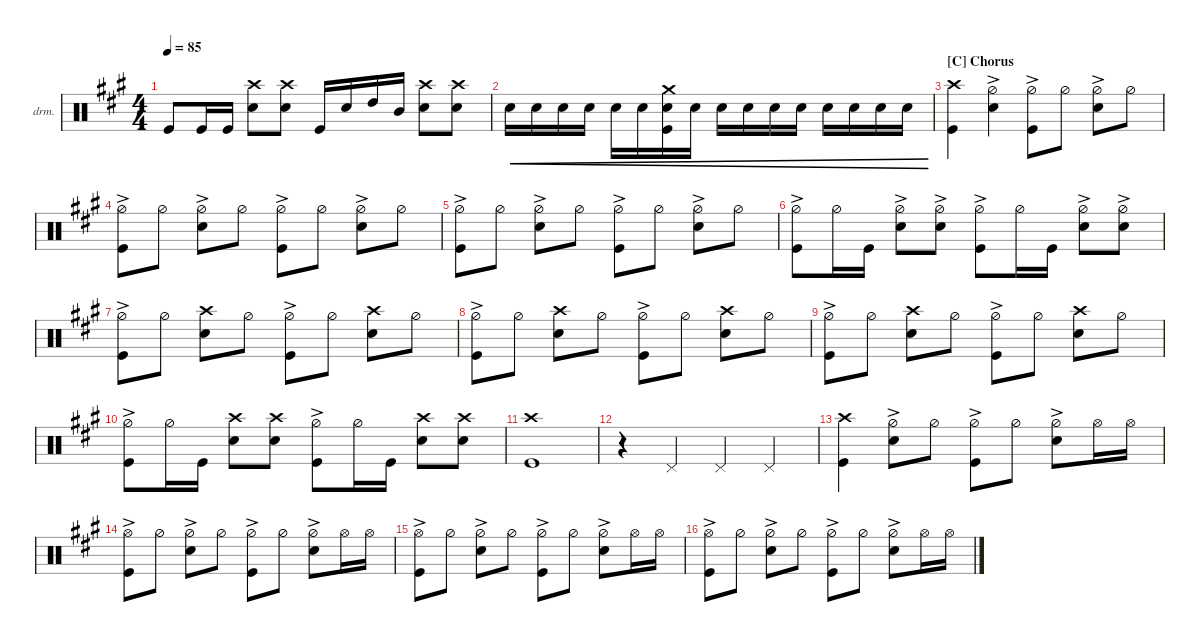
\defaultSystemsLayout 4
\hideDynamics
\bracketExtendMode nobrackets
\firstSystemTrackNameOrientation horizontal
\otherSystemsTrackNameOrientation horizontal
\track ("Drums" "drm.") {instrument percussion}
\staff {score}
\articulation defaults
\ts (4 4)
\tempo 85
\clef neutral
\ks a "Kick (hit)"{acc forcenatural}.8{dy mf beam Up} "Kick (hit)"{acc forcenatural}.16{beam Up} "Kick (hit)"{acc forcenatural}.16{beam Up}
("Snare (hit) 2"{acc forcenatural} "Crash high (hit)"{acc forcenatural}).8{beam Down} ("Snare (hit) 2"{acc forcenatural} "Crash high (hit)"{acc forcenatural}).8{beam Down} "Kick (hit)"{acc forcenatural}.16{beam Up} "Snare (hit) 2"{acc forcenatural}.16{beam Up} "High Tom (hit)"{acc forcenatural}.16{beam Up} "Mid Tom (hit)"{acc forcenatural}.16{beam Up} ("Snare (hit) 2"{acc forcenatural} "Crash high (hit)"{acc forcenatural}).8{beam Down} ("Snare (hit) 2"{acc forcenatural} "Crash high (hit)"{acc forcenatural}).8{beam Down} |
"Snare (hit) 2"{acc forcenatural}.16{cre beam Down} "Snare (hit) 2"{acc forcenatural}.16{cre beam Down} "Snare (hit) 2"{acc forcenatural}.16{cre beam Down} "Snare (hit) 2"{acc forcenatural}.16{cre beam Down} "Snare (hit) 2"{acc forcenatural}.16{cre beam Down} "Snare (hit) 2"{acc forcenatural}.16{cre beam Down} ("Snare (hit) 2"{acc forcenatural} "Kick (hit)"{acc forcenatural} "Crash medium (hit)"{acc forcenatural}).16{cre beam Down} "Snare (hit) 2"{acc forcenatural}.16{cre beam Down} "Snare (hit) 2"{acc forcenatural}.16{cre beam Down} "Snare (hit) 2"{acc forcenatural}.16{cre beam Down} "Snare (hit) 2"{acc forcenatural}.16{cre beam Down} "Snare (hit) 2"{acc forcenatural}.16{cre beam Down} "Snare (hit) 2"{acc forcenatural}.16{cre beam Down} "Snare (hit) 2"{acc forcenatural}.16{cre beam Down} "Snare (hit) 2"{acc forcenatural}.16{cre beam Down} "Snare (hit) 2"{acc forcenatural}.16{cre beam Down} |
\section ("C" "Chorus")
("Kick (hit)"{acc forcenatural} "Crash high (hit)"{acc forcenatural}).4{beam Down} ("Snare (hit) 2"{acc forcenatural} "Hi-Hat (half)"{ac acc forcenatural}).4{beam Down} ("Hi-Hat (half)"{ac acc forcenatural} "Kick (hit)"{acc forcenatural}).8{beam Down} "Hi-Hat (half)"{acc forcenatural}.8{beam Down} ("Snare (hit) 2"{acc forcenatural} "Hi-Hat (half)"{ac acc forcenatural}).8{beam Down} "Hi-Hat (half)"{acc forcenatural}.8{beam Down} |
("Kick (hit)"{acc forcenatural} "Hi-Hat (half)"{ac acc forcenatural}).8{beam Down} "Hi-Hat (half)"{acc forcenatural}.8{beam Down} ("Snare (hit) 2"{acc forcenatural} "Hi-Hat (half)"{ac acc forcenatural}).8{beam Down} "Hi-Hat (half)"{acc forcenatural}.8{beam Down} ("Hi-Hat (half)"{ac acc forcenatural} "Kick (hit)"{acc forcenatural}).8{beam Down} "Hi-Hat (half)"{acc forcenatural}.8{beam Down} ("Snare (hit) 2"{acc forcenatural} "Hi-Hat (half)"{ac acc forcenatural}).8{beam Down} "Hi-Hat (half)"{acc forcenatural}.8{beam Down} |
("Kick (hit)"{acc forcenatural} "Hi-Hat (half)"{ac acc forcenatural}).8{beam Down} "Hi-Hat (half)"{acc forcenatural}.8{beam Down} ("Snare (hit) 2"{acc forcenatural} "Hi-Hat (half)"{ac acc forcenatural}).8{beam Down} "Hi-Hat (half)"{acc forcenatural}.8{beam Down} ("Hi-Hat (half)"{ac acc forcenatural} "Kick (hit)"{acc forcenatural}).8{beam Down} "Hi-Hat (half)"{acc forcenatural}.8{beam Down} ("Snare (hit) 2"{acc forcenatural} "Hi-Hat (half)"{ac acc forcenatural}).8{beam Down} "Hi-Hat (half)"{acc forcenatural}.8{beam Down} |
("Kick (hit)"{acc forcenatural} "Hi-Hat (half)"{ac acc forcenatural}).8{beam Down} "Hi-Hat (half)"{acc forcenatural}.16{beam Down} "Kick (hit)"{acc forcenatural}.16{beam Down} ("Hi-Hat (half)"{ac acc forcenatural} "Snare (hit) 2"{acc forcenatural}).8{beam Down} ("Hi-Hat (half)"{ac acc forcenatural} "Snare (hit) 2"{acc forcenatural}).8{beam Down} ("Kick (hit)"{acc forcenatural} "Hi-Hat (half)"{ac acc forcenatural}).8{beam Down} "Hi-Hat (half)"{acc forcenatural}.16{beam Down} "Kick (hit)"{acc forcenatural}.16{beam Down} ("Hi-Hat (half)"{ac acc forcenatural} "Snare (hit) 2"{acc forcenatural}).8{beam Down} ("Hi-Hat (half)"{ac acc forcenatural} "Snare (hit) 2"{acc forcenatural}).8{beam Down} |
("Kick (hit)"{acc forcenatural} "Hi-Hat (half)"{ac acc forcenatural}).8{beam Down} "Hi-Hat (half)"{acc forcenatural}.8{beam Down} ("Snare (hit) 2"{acc forcenatural} "Crash high (hit)"{acc forcenatural}).8{beam Down} "Hi-Hat (half)"{acc forcenatural}.8{beam Down} ("Hi-Hat (half)"{ac acc forcenatural} "Kick (hit)"{acc forcenatural}).8{beam Down} "Hi-Hat (half)"{acc forcenatural}.8{beam Down} ("Snare (hit) 2"{acc forcenatural} "Crash high (hit)"{acc forcenatural}).8{beam Down} "Hi-Hat (half)"{acc forcenatural}.8{beam Down} |
("Kick (hit)"{acc forcenatural} "Hi-Hat (half)"{ac acc forcenatural}).8{beam Down} "Hi-Hat (half)"{acc forcenatural}.8{beam Down} ("Snare (hit) 2"{acc forcenatural} "Crash high (hit)"{acc forcenatural}).8{beam Down} "Hi-Hat (half)"{acc forcenatural}.8{beam Down} ("Hi-Hat (half)"{ac acc forcenatural} "Kick (hit)"{acc forcenatural}).8{beam Down} "Hi-Hat (half)"{acc forcenatural}.8{beam Down} ("Snare (hit) 2"{acc forcenatural} "Crash high (hit)"{acc forcenatural}).8{beam Down} "Hi-Hat (half)"{acc forcenatural}.8{beam Down} |
("Kick (hit)"{acc forcenatural} "Hi-Hat (half)"{ac acc forcenatural}).8{beam Down} "Hi-Hat (half)"{acc forcenatural}.8{beam Down} ("Snare (hit) 2"{acc forcenatural} "Crash high (hit)"{acc forcenatural}).8{beam Down} "Hi-Hat (half)"{acc forcenatural}.8{beam Down} ("Hi-Hat (half)"{ac acc forcenatural} "Kick (hit)"{acc forcenatural}).8{beam Down} "Hi-Hat (half)"{acc forcenatural}.8{beam Down} ("Snare (hit) 2"{acc forcenatural} "Crash high (hit)"{acc forcenatural}).8{beam Down} "Hi-Hat (half)"{acc forcenatural}.8{beam Down} |
("Kick (hit)"{acc forcenatural} "Hi-Hat (half)"{ac acc forcenatural}).8{beam Down} "Hi-Hat (half)"{acc forcenatural}.16{beam Down} "Kick (hit)"{acc forcenatural}.16{beam Down} ("Snare (hit) 2"{acc forcenatural} "Crash high (hit)"{acc forcenatural}).8{beam Down} ("Snare (hit) 2"{acc forcenatural} "Crash high (hit)"{acc forcenatural}).8{beam Down} ("Kick (hit)"{acc forcenatural} "Hi-Hat (half)"{ac acc forcenatural}).8{beam Down} "Hi-Hat (half)"{acc forcenatural}.16{beam Down} "Kick (hit)"{acc forcenatural}.16{beam Down} ("Snare (hit) 2"{acc forcenatural} "Crash high (hit)"{acc forcenatural}).8{beam Down} ("Snare (hit) 2"{acc forcenatural} "Crash high (hit)"{acc forcenatural}).8{beam Down} |
("Kick (hit)"{acc forcenatural} "Crash high (hit)"{acc forcenatural}).1{beam Down} |
r.4{beam Down} "Pedal Hi-Hat (hit)"{acc forcenatural}.4{beam Up} "Pedal Hi-Hat (hit)"{acc forcenatural}.4{beam Up} "Pedal Hi-Hat (hit)"{acc forcenatural}.4{beam Up} |
("Kick (hit)"{acc forcenatural} "Crash high (hit)"{acc forcenatural}).4{beam Down} ("Snare (hit) 2"{acc forcenatural} "Hi-Hat (half)"{ac acc forcenatural}).8{beam Down} "Hi-Hat (half)"{acc forcenatural}.8{beam Down} ("Hi-Hat (half)"{ac acc forcenatural} "Kick (hit)"{acc forcenatural}).8{beam Down} "Hi-Hat (half)"{acc forcenatural}.8{beam Down} ("Snare (hit) 2"{acc forcenatural} "Hi-Hat (half)"{ac acc forcenatural}).8{beam Down} "Hi-Hat (open)"{acc forcenatural}.16{beam Down} "Hi-Hat (open)"{acc forcenatural}.16{beam Down} |
("Kick (hit)"{acc forcenatural} "Hi-Hat (open)"{ac acc forcenatural}).8{beam Down} "Hi-Hat (half)"{acc forcenatural}.8{beam Down} ("Snare (hit) 2"{acc forcenatural} "Hi-Hat (half)"{ac acc forcenatural}).8{beam Down} "Hi-Hat (half)"{acc forcenatural}.8{beam Down} ("Hi-Hat (half)"{ac acc forcenatural} "Kick (hit)"{acc forcenatural}).8{beam Down} "Hi-Hat (half)"{acc forcenatural}.8{beam Down} ("Snare (hit) 2"{acc forcenatural} "Hi-Hat (half)"{ac acc forcenatural}).8{beam Down} "Hi-Hat (open)"{acc forcenatural}.16{beam Down} "Hi-Hat (open)"{acc forcenatural}.16{beam Down} |
("Kick (hit)"{acc forcenatural} "Hi-Hat (open)"{ac acc forcenatural}).8{beam Down} "Hi-Hat (half)"{acc forcenatural}.8{beam Down} ("Snare (hit) 2"{acc forcenatural} "Hi-Hat (half)"{ac acc forcenatural}).8{beam Down} "Hi-Hat (half)"{acc forcenatural}.8{beam Down} ("Hi-Hat (half)"{ac acc forcenatural} "Kick (hit)"{acc forcenatural}).8{beam Down} "Hi-Hat (half)"{acc forcenatural}.8{beam Down} ("Snare (hit) 2"{acc forcenatural} "Hi-Hat (half)"{ac acc forcenatural}).8{beam Down} "Hi-Hat (open)"{acc forcenatural}.16{beam Down} "Hi-Hat (open)"{acc forcenatural}.16{beam Down} |
("Kick (hit)"{acc forcenatural} "Hi-Hat (open)"{ac acc forcenatural}).8{beam Down} "Hi-Hat (half)"{acc forcenatural}.8{beam Down} ("Snare (hit) 2"{acc forcenatural} "Hi-Hat (half)"{ac acc forcenatural}).8{beam Down} "Hi-Hat (half)"{acc forcenatural}.8{beam Down} ("Hi-Hat (half)"{ac acc forcenatural} "Kick (hit)"{acc forcenatural}).8{beam Down} "Hi-Hat (half)"{acc forcenatural}.8{beam Down} ("Snare (hit) 2"{acc forcenatural} "Hi-Hat (half)"{ac acc forcenatural}).8{beam Down} "Hi-Hat (open)"{acc forcenatural}.16{beam Down} "Hi-Hat (open)"{acc forcenatural}.16{beam Down}
